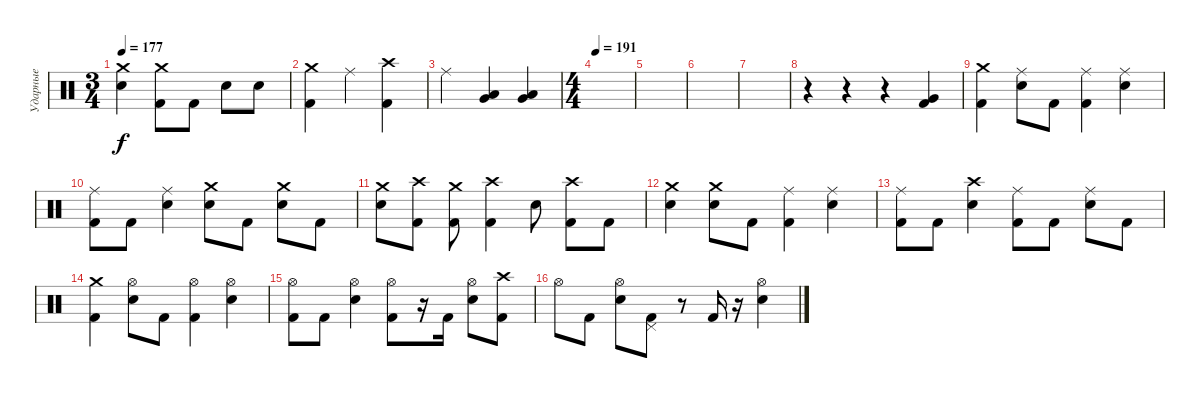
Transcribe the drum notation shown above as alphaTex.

\track ("Ударные" "Ударные") {instrument percussion}
\staff {score}
\articulation defaults
\ts (3 4)
\tempo 177
\clef neutral
\ks c
("Crash medium (hit)" "Snare (hit) 2").4{dy f} ("Crash medium (hit)" "Kick (hit) 2").8 "Kick (hit) 2".8 "Snare (hit) 2".8 "Snare (hit) 2".8 |
("Crash medium (hit)" "Kick (hit) 2").4 "Ride (middle)".4 ("Crash high (hit)" "Kick (hit) 2").4 |
"Ride (middle)".4 ("Low Tom (hit)" "Very Low Tom (hit)").4 ("Low Tom (hit)" "Very Low Tom (hit)").4 |
\ts (4 4)
\tempo 191
|
|
|
|
r.4 r.4 r.4 ("Very Low Tom (hit)" "Kick (hit) 2").4 |
("Crash medium (hit)" "Kick (hit) 2").4 ("Ride (middle)" "Snare (hit) 2").8 "Kick (hit) 2".8 ("Ride (middle)" "Kick (hit) 2").4 ("Ride (middle)" "Snare (hit) 2").4 |
("Ride (middle)" "Kick (hit) 2").8 "Kick (hit) 2".8 ("Ride (middle)" "Snare (hit) 2").4 ("Crash medium (hit)" "Snare (hit) 2").8 "Kick (hit) 2".8 ("Crash medium (hit)" "Snare (hit) 2").8 "Kick (hit) 2".8 |
("Crash medium (hit)" "Snare (hit) 2").8 ("Crash high (hit)" "Kick (hit) 2").8 ("Crash medium (hit)" "Kick (hit) 2").8 ("Crash high (hit)" "Kick (hit) 2").4 "Snare (hit) 2".8 ("Kick (hit) 2" "Crash high (hit)").8 "Kick (hit) 2".8 |
("Crash medium (hit)" "Snare (hit) 2").4 ("Crash medium (hit)" "Snare (hit) 2").8 "Kick (hit) 2".8 ("Ride (middle)" "Kick (hit) 2").4 ("Ride (middle)" "Snare (hit) 2").4 |
("Ride (middle)" "Kick (hit) 2").8 "Kick (hit) 2".8 ("Crash high (hit)" "Snare (hit) 2").4 ("Ride (middle)" "Kick (hit) 2").8 "Kick (hit) 2".8 ("Ride (middle)" "Snare (hit) 2").8 "Kick (hit) 2".8 |
("Crash medium (hit)" "Kick (hit) 2").4 ("Hi-Hat (open)" "Snare (hit) 2").8 "Kick (hit) 2".8 ("Hi-Hat (open)" "Kick (hit) 2").4 ("Hi-Hat (open)" "Snare (hit) 2").4 |
("Hi-Hat (open)" "Kick (hit) 2").8 "Kick (hit) 2".8 ("Hi-Hat (open)" "Snare (hit) 2").4 ("Hi-Hat (open)" "Kick (hit) 2").8 r.16 "Kick (hit) 2".16 ("Hi-Hat (open)" "Snare (hit) 2").8 ("Crash high (hit)" "Kick (hit) 2").8 |
"Hi-Hat (open)".8 "Kick (hit) 2".8 ("Hi-Hat (open)" "Snare (hit) 2").8 ("Pedal Hi-Hat (hit)" "Kick (hit) 2").8 r.8 "Kick (hit) 2".16 r.16 ("Hi-Hat (open)" "Snare (hit) 2").4
